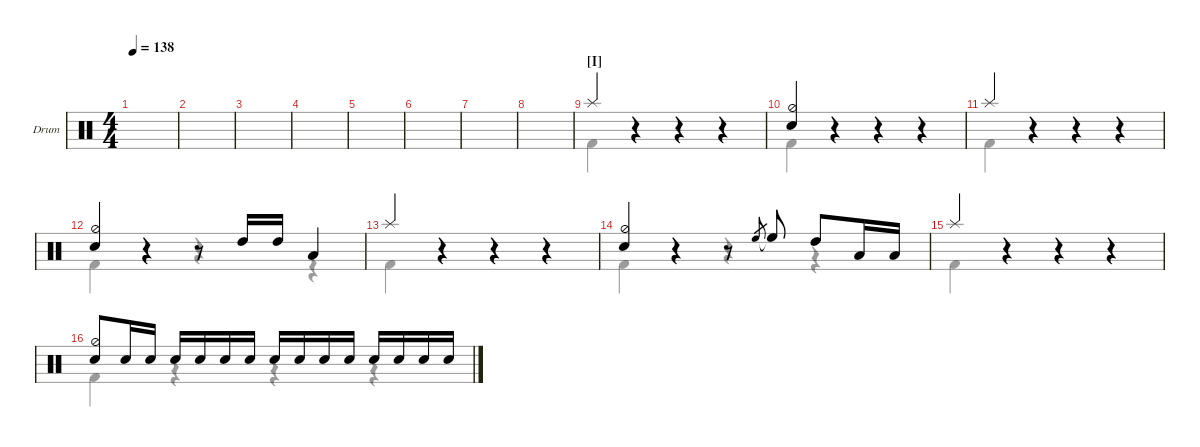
\defaultSystemsLayout 4
\hideDynamics
\bracketExtendMode nobrackets
\firstSystemTrackNameOrientation horizontal
\track ("Drumkit" "Drum") {instrument percussion}
\staff {score}
\articulation defaults
\voice
\ts (4 4)
\tempo 138
\clef neutral
\ks c
|
|
|
|
|
|
|
|
\section ("I" "")
"Splash (hit)".4{beam Up} r.4{beam Up} r.4{beam Up} r.4{beam Up} |
("Snare (hit) 2" "Hi-Hat (half)").4{beam Up} r.4{beam Up} r.4{beam Up} r.4{beam Up} |
"Splash (hit)".4{beam Up} r.4{beam Up} r.4{beam Up} r.4{beam Up} |
("Snare (hit) 2" "Hi-Hat (half)").4{beam Up} r.4{beam Up} r.8{beam Up} "High Tom (hit)".16{beam Up} "High Tom (hit)".16{beam Up} "Low Tom (hit)".4{beam Up} |
"Splash (hit)".4{beam Up} r.4{beam Up} r.4{beam Up} r.4{beam Up} |
("Snare (hit) 2" "Hi-Hat (half)").4{beam Up} r.4{beam Up} r.8{beam Up} "High Floor Tom (hit)".8{gr beam Up} "High Floor Tom (hit)"{t}.8{beam Up} "High Tom (hit)".8{beam Up} "Low Tom (hit)".16{beam Up} "Low Tom (hit)".16{beam Up} |
"Splash (hit)".4{beam Up} r.4{beam Up} r.4{beam Up} r.4{beam Up} |
("Snare (hit) 2" "Hi-Hat (half)").8{beam Up} "Snare (hit) 2".16{beam Up} "Snare (hit) 2".16{beam Up} "Snare (hit) 2".16{beam Up} "Snare (hit) 2".16{beam Up} "Snare (hit) 2".16{beam Up} "Snare (hit) 2".16{beam Up} "Snare (hit) 2".16{beam Up} "Snare (hit) 2".16{beam Up} "Snare (hit) 2".16{beam Up} "Snare (hit) 2".16{beam Up} "Snare (hit) 2".16{beam Up} "Snare (hit) 2".16{beam Up} "Snare (hit) 2".16{beam Up} "Snare (hit) 2".16{beam Up}
\voice
\clef neutral
\ottava regular
\simile none
\ks c
|
|
|
|
|
|
|
|
|
|
|
|
|
|
|
\voice
\clef neutral
\ottava regular
\simile none
\ks c
|
|
|
|
|
|
|
|
"Kick (hit) 2".4{beam Down} r.4{beam Down} r.4{beam Down} r.4{beam Down} |
"Kick (hit) 2".4{beam Down} r.4{beam Down} r.4{beam Down} r.4{beam Down} |
"Kick (hit) 2".4{beam Down} r.4{beam Down} r.4{beam Down} r.4{beam Down} |
"Kick (hit) 2".4{beam Down} r.4{beam Down} r.4{beam Down} r.4{beam Down} |
"Kick (hit) 2".4{beam Down} r.4{beam Down} r.4{beam Down} r.4{beam Down} |
"Kick (hit) 2".4{beam Down} r.4{beam Down} r.4{beam Down} r.4{beam Down} |
"Kick (hit) 2".4{beam Down} r.4{beam Down} r.4{beam Down} r.4{beam Down} |
"Kick (hit) 2".4{beam Down} r.4{beam Down} r.4{beam Down} r.4{beam Down}
